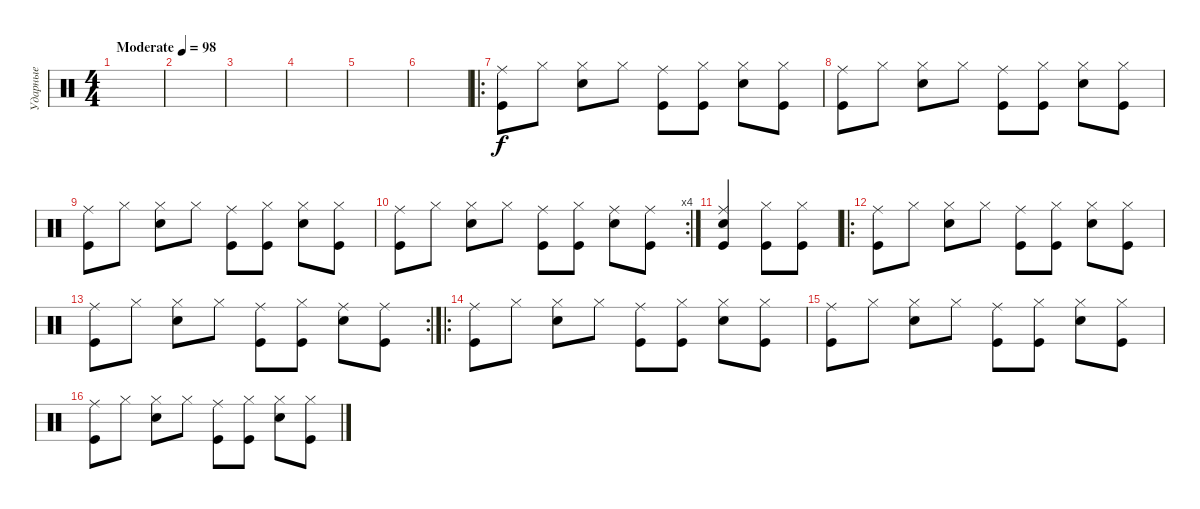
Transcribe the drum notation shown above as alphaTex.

\track ("Ударные" "Ударные") {instrument percussion}
\staff {score}
\articulation defaults
\ts (4 4)
\tempo (98 "Moderate")
\clef neutral
\ks c
|
|
|
|
|
|
\ro
("Kick (hit)" "Ride (middle)").8 "Hi-Hat (closed)".8 ("Snare (hit) 2" "Hi-Hat (closed)").8 "Hi-Hat (closed)".8 ("Kick (hit)" "Ride (middle)").8 ("Kick (hit)" "Hi-Hat (closed)").8 ("Snare (hit) 2" "Hi-Hat (closed)").8 ("Kick (hit)" "Hi-Hat (closed)").8 |
("Kick (hit)" "Ride (middle)").8 "Hi-Hat (closed)".8 ("Snare (hit) 2" "Hi-Hat (closed)").8 "Hi-Hat (closed)".8 ("Kick (hit)" "Ride (middle)").8 ("Kick (hit)" "Hi-Hat (closed)").8 ("Snare (hit) 2" "Hi-Hat (closed)").8 ("Kick (hit)" "Hi-Hat (closed)").8 |
("Kick (hit)" "Ride (middle)").8 "Hi-Hat (closed)".8 ("Snare (hit) 2" "Hi-Hat (closed)").8 "Hi-Hat (closed)".8 ("Kick (hit)" "Ride (middle)").8 ("Kick (hit)" "Hi-Hat (closed)").8 ("Snare (hit) 2" "Hi-Hat (closed)").8 ("Kick (hit)" "Hi-Hat (closed)").8 |
\rc 4
("Kick (hit)" "Ride (middle)").8 "Hi-Hat (closed)".8 ("Snare (hit) 2" "Hi-Hat (closed)").8 "Hi-Hat (closed)".8 ("Kick (hit)" "Ride (middle)").8 ("Kick (hit)" "Hi-Hat (closed)").8 ("Snare (hit) 2" "Ride (middle)").8 ("Kick (hit)" "Ride (middle)").8 |
("Kick (hit)" "Snare (hit) 2" "Ride (middle)").4 ("Kick (hit)" "Hi-Hat (closed)").8 ("Kick (hit)" "Hi-Hat (closed)").8 |
\ro
("Kick (hit)" "Ride (middle)").8 "Hi-Hat (closed)".8 ("Snare (hit) 2" "Hi-Hat (closed)").8 "Hi-Hat (closed)".8 ("Kick (hit)" "Ride (middle)").8 ("Kick (hit)" "Hi-Hat (closed)").8 ("Snare (hit) 2" "Hi-Hat (closed)").8 ("Kick (hit)" "Hi-Hat (closed)").8 |
\rc 2
("Kick (hit)" "Ride (middle)").8 "Hi-Hat (closed)".8 ("Snare (hit) 2" "Hi-Hat (closed)").8 "Hi-Hat (closed)".8 ("Kick (hit)" "Ride (middle)").8 ("Kick (hit)" "Hi-Hat (closed)").8 ("Snare (hit) 2" "Ride (middle)").8 ("Kick (hit)" "Ride (middle)").8 |
\ro
("Kick (hit)" "Ride (middle)").8 "Hi-Hat (closed)".8 ("Snare (hit) 2" "Hi-Hat (closed)").8 "Hi-Hat (closed)".8 ("Kick (hit)" "Ride (middle)").8 ("Kick (hit)" "Hi-Hat (closed)").8 ("Snare (hit) 2" "Hi-Hat (closed)").8 ("Kick (hit)" "Hi-Hat (closed)").8 |
("Kick (hit)" "Ride (middle)").8 "Hi-Hat (closed)".8 ("Snare (hit) 2" "Hi-Hat (closed)").8 "Hi-Hat (closed)".8 ("Kick (hit)" "Ride (middle)").8 ("Kick (hit)" "Hi-Hat (closed)").8 ("Snare (hit) 2" "Hi-Hat (closed)").8 ("Kick (hit)" "Hi-Hat (closed)").8 |
("Kick (hit)" "Ride (middle)").8 "Hi-Hat (closed)".8 ("Snare (hit) 2" "Hi-Hat (closed)").8 "Hi-Hat (closed)".8 ("Kick (hit)" "Ride (middle)").8 ("Kick (hit)" "Hi-Hat (closed)").8 ("Snare (hit) 2" "Hi-Hat (closed)").8 ("Kick (hit)" "Hi-Hat (closed)").8
